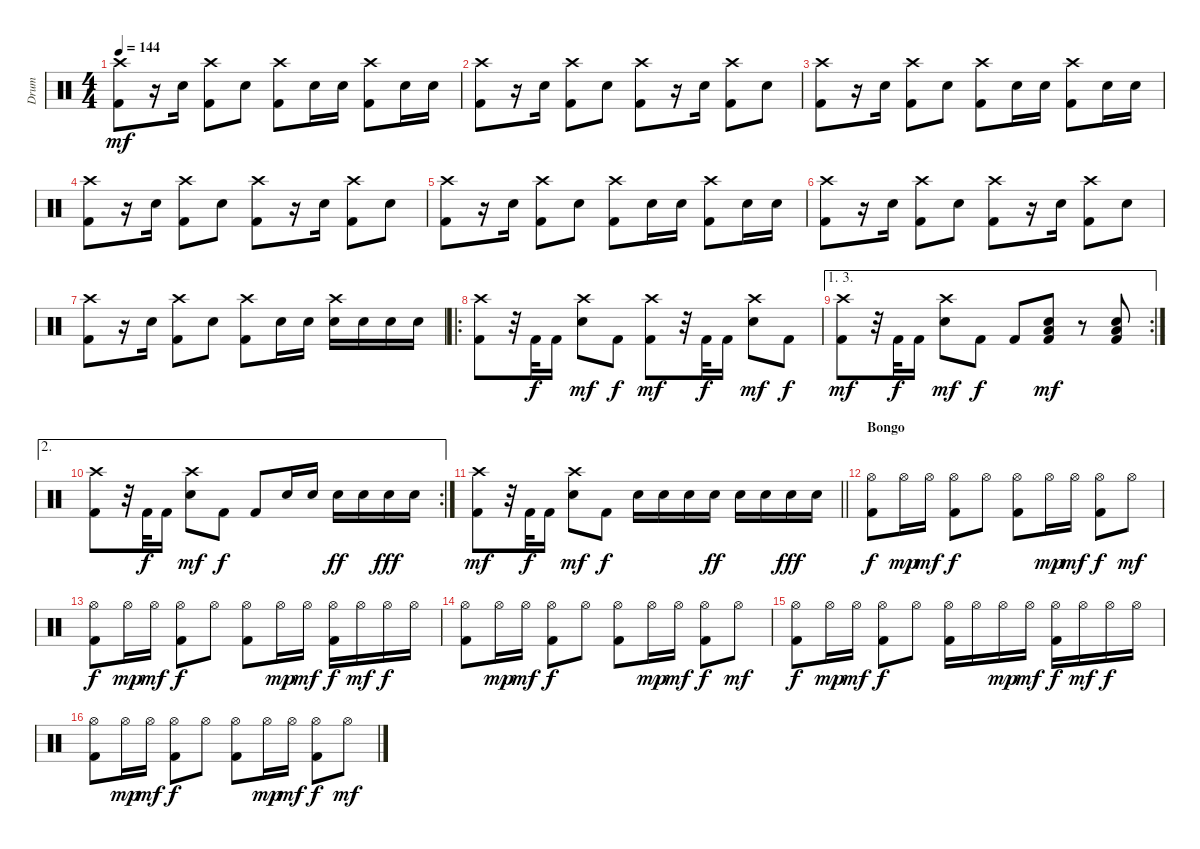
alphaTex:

\track ("Drum" "Drum") {instrument percussion}
\staff {score}
\articulation defaults
\ts (4 4)
\tempo 144
\clef neutral
\ks c
("Kick (hit) 2" "Crash high (hit)").8{dy mf} r.16 "Snare (hit) 2".16 ("Kick (hit) 2" "Crash high (hit)").8 "Snare (hit) 2".8 ("Kick (hit) 2" "Crash high (hit)").8 "Snare (hit) 2".16 "Snare (hit) 2".16 ("Kick (hit) 2" "Crash high (hit)").8 "Snare (hit) 2".16 "Snare (hit) 2".16 |
("Kick (hit) 2" "Crash high (hit)").8 r.16 "Snare (hit) 2".16 ("Kick (hit) 2" "Crash high (hit)").8 "Snare (hit) 2".8 ("Kick (hit) 2" "Crash high (hit)").8 r.16 "Snare (hit) 2".16 ("Kick (hit) 2" "Crash high (hit)").8 "Snare (hit) 2".8 |
("Kick (hit) 2" "Crash high (hit)").8 r.16 "Snare (hit) 2".16 ("Kick (hit) 2" "Crash high (hit)").8 "Snare (hit) 2".8 ("Kick (hit) 2" "Crash high (hit)").8 "Snare (hit) 2".16 "Snare (hit) 2".16 ("Kick (hit) 2" "Crash high (hit)").8 "Snare (hit) 2".16 "Snare (hit) 2".16 |
("Kick (hit) 2" "Crash high (hit)").8 r.16 "Snare (hit) 2".16 ("Kick (hit) 2" "Crash high (hit)").8 "Snare (hit) 2".8 ("Kick (hit) 2" "Crash high (hit)").8 r.16 "Snare (hit) 2".16 ("Kick (hit) 2" "Crash high (hit)").8 "Snare (hit) 2".8 |
("Kick (hit) 2" "Crash high (hit)").8 r.16 "Snare (hit) 2".16 ("Kick (hit) 2" "Crash high (hit)").8 "Snare (hit) 2".8 ("Kick (hit) 2" "Crash high (hit)").8 "Snare (hit) 2".16 "Snare (hit) 2".16 ("Kick (hit) 2" "Crash high (hit)").8 "Snare (hit) 2".16 "Snare (hit) 2".16 |
("Kick (hit) 2" "Crash high (hit)").8 r.16 "Snare (hit) 2".16 ("Kick (hit) 2" "Crash high (hit)").8 "Snare (hit) 2".8 ("Kick (hit) 2" "Crash high (hit)").8 r.16 "Snare (hit) 2".16 ("Kick (hit) 2" "Crash high (hit)").8 "Snare (hit) 2".8 |
("Kick (hit) 2" "Crash high (hit)").8 r.16 "Snare (hit) 2".16 ("Kick (hit) 2" "Crash high (hit)").8 "Snare (hit) 2".8 ("Kick (hit) 2" "Crash high (hit)").8 "Snare (hit) 2".16 "Snare (hit) 2".16 ("Snare (hit) 2" "Crash high (hit)").16 "Snare (hit) 2".16 "Snare (hit) 2".16 "Snare (hit) 2".16 |
\ro
("Crash high (hit)" "Kick (hit) 2").8 r.32 "Kick (hit) 2".32{dy f} "Kick (hit) 2".16 ("Snare (hit) 2" "Crash high (hit)").8{dy mf} "Kick (hit) 2".8{dy f} ("Crash high (hit)" "Kick (hit) 2").8{dy mf} r.32 "Kick (hit) 2".32{dy f} "Kick (hit) 2".16 ("Snare (hit) 2" "Crash high (hit)").8{dy mf} "Kick (hit) 2".8{dy f} |
\ae (1 3)
\rc 2
("Crash high (hit)" "Kick (hit) 2").8{dy mf} r.32 "Kick (hit) 2".32{dy f} "Kick (hit) 2".16 ("Snare (hit) 2" "Crash high (hit)").8{dy mf} "Kick (hit) 2".8{dy f} "Kick (hit) 2".8 ("Kick (hit) 2" "Low Floor Tom (hit)" "Snare (hit) 2").8{dy mf} r.8 ("Kick (hit) 2" "Low Floor Tom (hit)" "Snare (hit) 2").8 |
\ae 2
\rc 2
("Crash high (hit)" "Kick (hit) 2").8 r.32 "Kick (hit) 2".32{dy f} "Kick (hit) 2".16 ("Snare (hit) 2" "Crash high (hit)").8{dy mf} "Kick (hit) 2".8{dy f} "Kick (hit) 2".8 "Snare (hit) 2".16 "Snare (hit) 2".16 "Snare (hit) 2".16{dy ff} "Snare (hit) 2".16 "Snare (hit) 2".16{dy fff} "Snare (hit) 2".16 |
\barLineRight lightlight
("Crash high (hit)" "Kick (hit) 2").8{dy mf} r.32 "Kick (hit) 2".32{dy f} "Kick (hit) 2".16 ("Snare (hit) 2" "Crash high (hit)").8{dy mf} "Kick (hit) 2".8{dy f} "Snare (hit) 2".16 "Snare (hit) 2".16 "Snare (hit) 2".16 "Snare (hit) 2".16{dy ff} "Snare (hit) 2".16 "Snare (hit) 2".16 "Snare (hit) 2".16{dy fff} "Snare (hit) 2".16 |
\section ("" "Bongo")
("Kick (hit) 2" "Hi-Hat (open)").8{dy f} "Hi-Hat (open)".16{dy mp} "Hi-Hat (open)".16{dy mf} ("Kick (hit) 2" "Hi-Hat (open)").8{dy f} "Hi-Hat (open)".8 ("Kick (hit) 2" "Hi-Hat (open)").8 "Hi-Hat (open)".16{dy mp} "Hi-Hat (open)".16{dy mf} ("Kick (hit) 2" "Hi-Hat (open)").8{dy f} "Hi-Hat (open)".8{dy mf} |
("Kick (hit) 2" "Hi-Hat (open)").8{dy f} "Hi-Hat (open)".16{dy mp} "Hi-Hat (open)".16{dy mf} ("Kick (hit) 2" "Hi-Hat (open)").8{dy f} "Hi-Hat (open)".8 ("Kick (hit) 2" "Hi-Hat (open)").8 "Hi-Hat (open)".16{dy mp} "Hi-Hat (open)".16{dy mf} ("Kick (hit) 2" "Hi-Hat (open)").16{dy f} "Hi-Hat (open)".16{dy mf} "Hi-Hat (open)".16{dy f} "Hi-Hat (open)".16 |
("Kick (hit) 2" "Hi-Hat (open)").8 "Hi-Hat (open)".16{dy mp} "Hi-Hat (open)".16{dy mf} ("Kick (hit) 2" "Hi-Hat (open)").8{dy f} "Hi-Hat (open)".8 ("Kick (hit) 2" "Hi-Hat (open)").8 "Hi-Hat (open)".16{dy mp} "Hi-Hat (open)".16{dy mf} ("Kick (hit) 2" "Hi-Hat (open)").8{dy f} "Hi-Hat (open)".8{dy mf} |
("Kick (hit) 2" "Hi-Hat (open)").8{dy f} "Hi-Hat (open)".16{dy mp} "Hi-Hat (open)".16{dy mf} ("Kick (hit) 2" "Hi-Hat (open)").8{dy f} "Hi-Hat (open)".8 ("Kick (hit) 2" "Hi-Hat (open)").16 "Hi-Hat (open)".16 "Hi-Hat (open)".16{dy mp} "Hi-Hat (open)".16{dy mf} ("Kick (hit) 2" "Hi-Hat (open)").16{dy f} "Hi-Hat (open)".16{dy mf} "Hi-Hat (open)".16{dy f} "Hi-Hat (open)".16 |
("Kick (hit) 2" "Hi-Hat (open)").8 "Hi-Hat (open)".16{dy mp} "Hi-Hat (open)".16{dy mf} ("Kick (hit) 2" "Hi-Hat (open)").8{dy f} "Hi-Hat (open)".8 ("Kick (hit) 2" "Hi-Hat (open)").8 "Hi-Hat (open)".16{dy mp} "Hi-Hat (open)".16{dy mf} ("Kick (hit) 2" "Hi-Hat (open)").8{dy f} "Hi-Hat (open)".8{dy mf}
